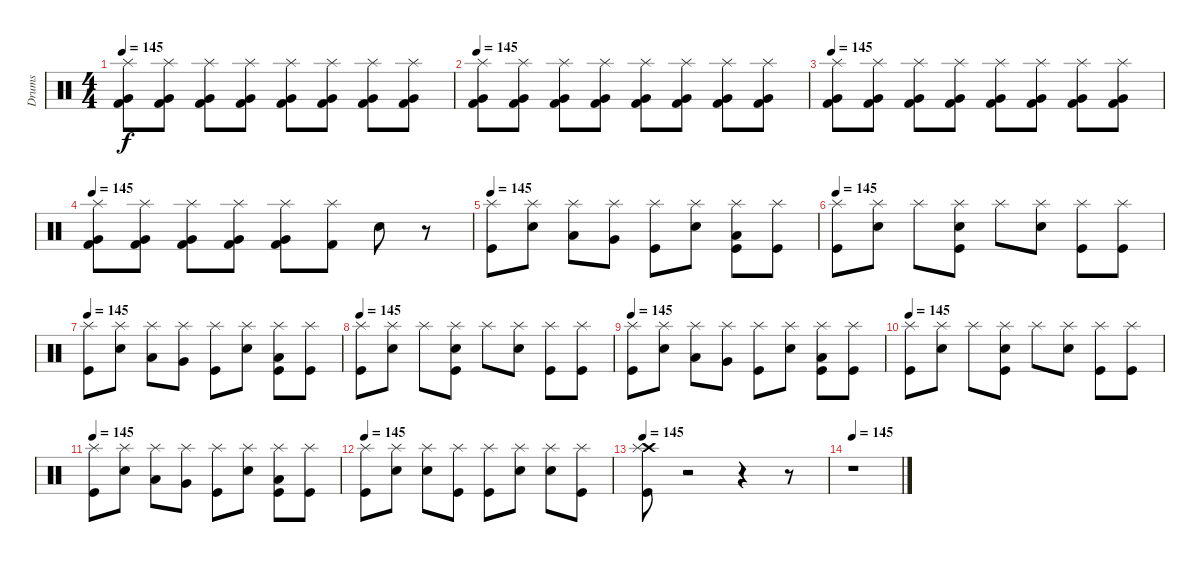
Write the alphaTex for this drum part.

\track ("Drums" "Drums") {instrument percussion}
\staff {score}
\articulation defaults
\ts (4 4)
\tempo 145
\clef neutral
\ks c
("Splash (hit)" "Very Low Tom (hit)" "Kick (hit) 2").8{dy f} ("Splash (hit)" "Very Low Tom (hit)" "Kick (hit) 2").8 ("Splash (hit)" "Very Low Tom (hit)" "Kick (hit) 2").8 ("Splash (hit)" "Very Low Tom (hit)" "Kick (hit) 2").8 ("Splash (hit)" "Very Low Tom (hit)" "Kick (hit) 2").8 ("Splash (hit)" "Very Low Tom (hit)" "Kick (hit) 2").8 ("Splash (hit)" "Very Low Tom (hit)" "Kick (hit) 2").8 ("Splash (hit)" "Very Low Tom (hit)" "Kick (hit) 2").8 |
\tempo 145
("Splash (hit)" "Very Low Tom (hit)" "Kick (hit) 2").8 ("Splash (hit)" "Very Low Tom (hit)" "Kick (hit) 2").8 ("Splash (hit)" "Very Low Tom (hit)" "Kick (hit) 2").8 ("Splash (hit)" "Very Low Tom (hit)" "Kick (hit) 2").8 ("Splash (hit)" "Very Low Tom (hit)" "Kick (hit) 2").8 ("Splash (hit)" "Very Low Tom (hit)" "Kick (hit) 2").8 ("Splash (hit)" "Very Low Tom (hit)" "Kick (hit) 2").8 ("Splash (hit)" "Very Low Tom (hit)" "Kick (hit) 2").8 |
\tempo 145
("Splash (hit)" "Very Low Tom (hit)" "Kick (hit) 2").8 ("Splash (hit)" "Very Low Tom (hit)" "Kick (hit) 2").8 ("Splash (hit)" "Very Low Tom (hit)" "Kick (hit) 2").8 ("Splash (hit)" "Very Low Tom (hit)" "Kick (hit) 2").8 ("Splash (hit)" "Very Low Tom (hit)" "Kick (hit) 2").8 ("Splash (hit)" "Very Low Tom (hit)" "Kick (hit) 2").8 ("Splash (hit)" "Very Low Tom (hit)" "Kick (hit) 2").8 ("Splash (hit)" "Very Low Tom (hit)" "Kick (hit) 2").8 |
\tempo 145
("Splash (hit)" "Very Low Tom (hit)" "Kick (hit) 2").8 ("Splash (hit)" "Very Low Tom (hit)" "Kick (hit) 2").8 ("Splash (hit)" "Very Low Tom (hit)" "Kick (hit) 2").8 ("Splash (hit)" "Very Low Tom (hit)" "Kick (hit) 2").8 ("Splash (hit)" "Very Low Tom (hit)" "Kick (hit) 2").8 ("Splash (hit)" "Kick (hit) 2").8 "Electric Snare (hit)".8 r.8 |
\tempo 145
("Kick (hit)" "Splash (hit)").8 ("Electric Snare (hit)" "Splash (hit)").8 ("Low Tom (hit)" "Splash (hit)").8 ("Very Low Tom (hit)" "Splash (hit)").8 ("Kick (hit)" "Splash (hit)").8 ("Electric Snare (hit)" "Splash (hit)").8 ("Kick (hit)" "Low Tom (hit)" "Splash (hit)").8 ("Kick (hit)" "Splash (hit)").8 |
\tempo 145
("Kick (hit)" "Splash (hit)").8 ("Electric Snare (hit)" "Splash (hit)").8 "Splash (hit)".8 ("Snare (hit) 2" "Kick (hit)" "Splash (hit)").8 "Splash (hit)".8 ("Electric Snare (hit)" "Splash (hit)").8 ("Kick (hit)" "Splash (hit)").8 ("Kick (hit)" "Splash (hit)").8 |
\tempo 145
("Kick (hit)" "Splash (hit)").8 ("Electric Snare (hit)" "Splash (hit)").8 ("Low Tom (hit)" "Splash (hit)").8 ("Very Low Tom (hit)" "Splash (hit)").8 ("Kick (hit)" "Splash (hit)").8 ("Electric Snare (hit)" "Splash (hit)").8 ("Kick (hit)" "Low Tom (hit)" "Splash (hit)").8 ("Kick (hit)" "Splash (hit)").8 |
\tempo 145
("Kick (hit)" "Splash (hit)").8 ("Electric Snare (hit)" "Splash (hit)").8 "Splash (hit)".8 ("Snare (hit) 2" "Kick (hit)" "Splash (hit)").8 "Splash (hit)".8 ("Electric Snare (hit)" "Splash (hit)").8 ("Kick (hit)" "Splash (hit)").8 ("Kick (hit)" "Splash (hit)").8 |
\tempo 145
("Splash (hit)" "Kick (hit)").8 ("Splash (hit)" "Electric Snare (hit)").8 ("Splash (hit)" "Low Tom (hit)").8 ("Splash (hit)" "Very Low Tom (hit)").8 ("Splash (hit)" "Kick (hit)").8 ("Splash (hit)" "Electric Snare (hit)").8 ("Splash (hit)" "Kick (hit)" "Low Tom (hit)").8 ("Splash (hit)" "Kick (hit)").8 |
\tempo 145
("Splash (hit)" "Kick (hit)").8 ("Splash (hit)" "Electric Snare (hit)").8 "Splash (hit)".8 ("Splash (hit)" "Snare (hit) 2" "Kick (hit)").8 "Splash (hit)".8 ("Splash (hit)" "Electric Snare (hit)").8 ("Splash (hit)" "Kick (hit)").8 ("Splash (hit)" "Kick (hit)").8 |
\tempo 145
("Kick (hit)" "Splash (hit)").8 ("Electric Snare (hit)" "Splash (hit)").8 ("Low Tom (hit)" "Splash (hit)").8 ("Very Low Tom (hit)" "Splash (hit)").8 ("Kick (hit)" "Splash (hit)").8 ("Electric Snare (hit)" "Splash (hit)").8 ("Kick (hit)" "Low Tom (hit)" "Splash (hit)").8 ("Kick (hit)" "Splash (hit)").8 |
\tempo 145
("Kick (hit)" "Splash (hit)").8 ("Electric Snare (hit)" "Splash (hit)").8 ("Snare (hit) 2" "Splash (hit)").8 ("Kick (hit)" "Splash (hit)").8 ("Kick (hit)" "Splash (hit)").8 ("Electric Snare (hit)" "Splash (hit)").8 ("Electric Snare (hit)" "Splash (hit)").8 ("Kick (hit)" "Splash (hit)").8 |
\tempo 145
("Crash high (hit)" "Splash (hit)" "Kick (hit)").8 r.2 r.4 r.8 |
\tempo 145
r.1
